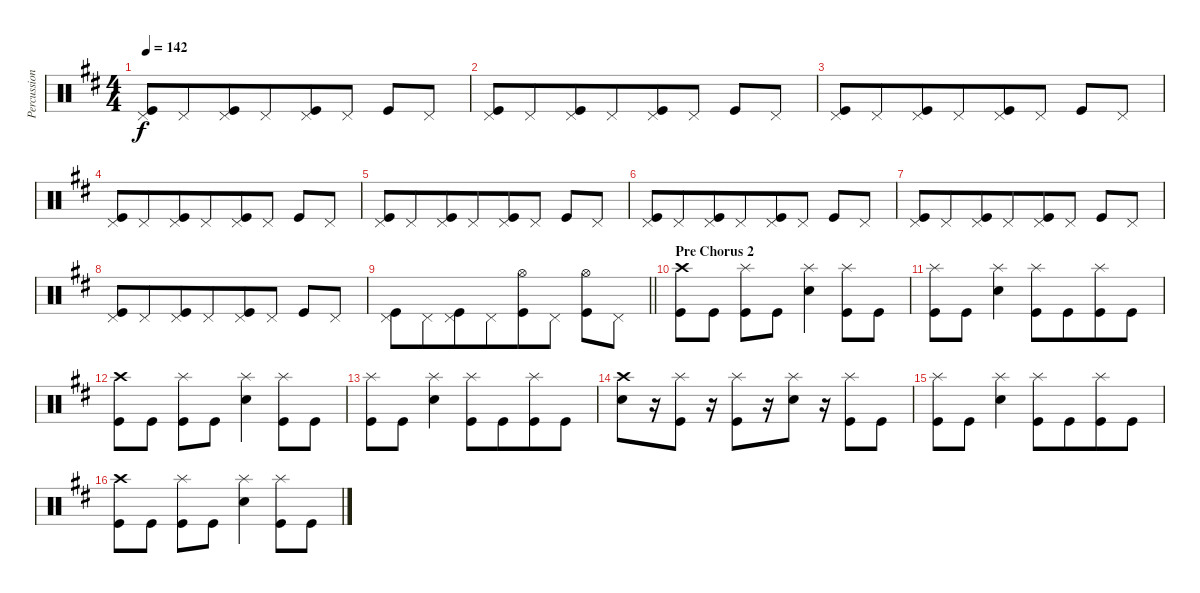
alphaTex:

\track ("Percussion" "Percussion") {instrument percussion}
\staff {score}
\articulation defaults
\ts (4 4)
\tempo 142
\clef neutral
\ks d
("Kick (hit)" "Pedal Hi-Hat (hit)").8{dy f beam merge} "Pedal Hi-Hat (hit)".8{beam merge} ("Kick (hit)" "Pedal Hi-Hat (hit)").8 "Pedal Hi-Hat (hit)".8{beam merge} ("Kick (hit)" "Pedal Hi-Hat (hit)").8{beam merge} "Pedal Hi-Hat (hit)".8 "Kick (hit)".8{beam merge} "Pedal Hi-Hat (hit)".8 |
("Kick (hit)" "Pedal Hi-Hat (hit)").8{beam merge} "Pedal Hi-Hat (hit)".8{beam merge} ("Kick (hit)" "Pedal Hi-Hat (hit)").8 "Pedal Hi-Hat (hit)".8{beam merge} ("Kick (hit)" "Pedal Hi-Hat (hit)").8{beam merge} "Pedal Hi-Hat (hit)".8 "Kick (hit)".8{beam merge} "Pedal Hi-Hat (hit)".8 |
("Kick (hit)" "Pedal Hi-Hat (hit)").8{beam merge} "Pedal Hi-Hat (hit)".8{beam merge} ("Kick (hit)" "Pedal Hi-Hat (hit)").8 "Pedal Hi-Hat (hit)".8{beam merge} ("Kick (hit)" "Pedal Hi-Hat (hit)").8{beam merge} "Pedal Hi-Hat (hit)".8 "Kick (hit)".8{beam merge} "Pedal Hi-Hat (hit)".8 |
("Kick (hit)" "Pedal Hi-Hat (hit)").8{beam merge} "Pedal Hi-Hat (hit)".8{beam merge} ("Kick (hit)" "Pedal Hi-Hat (hit)").8 "Pedal Hi-Hat (hit)".8{beam merge} ("Kick (hit)" "Pedal Hi-Hat (hit)").8{beam merge} "Pedal Hi-Hat (hit)".8 "Kick (hit)".8{beam merge} "Pedal Hi-Hat (hit)".8 |
("Kick (hit)" "Pedal Hi-Hat (hit)").8{beam merge} "Pedal Hi-Hat (hit)".8{beam merge} ("Kick (hit)" "Pedal Hi-Hat (hit)").8 "Pedal Hi-Hat (hit)".8{beam merge} ("Kick (hit)" "Pedal Hi-Hat (hit)").8{beam merge} "Pedal Hi-Hat (hit)".8 "Kick (hit)".8{beam merge} "Pedal Hi-Hat (hit)".8 |
("Kick (hit)" "Pedal Hi-Hat (hit)").8{beam merge} "Pedal Hi-Hat (hit)".8{beam merge} ("Kick (hit)" "Pedal Hi-Hat (hit)").8 "Pedal Hi-Hat (hit)".8{beam merge} ("Kick (hit)" "Pedal Hi-Hat (hit)").8{beam merge} "Pedal Hi-Hat (hit)".8 "Kick (hit)".8{beam merge} "Pedal Hi-Hat (hit)".8 |
("Kick (hit)" "Pedal Hi-Hat (hit)").8{beam merge} "Pedal Hi-Hat (hit)".8{beam merge} ("Kick (hit)" "Pedal Hi-Hat (hit)").8 "Pedal Hi-Hat (hit)".8{beam merge} ("Kick (hit)" "Pedal Hi-Hat (hit)").8{beam merge} "Pedal Hi-Hat (hit)".8 "Kick (hit)".8{beam merge} "Pedal Hi-Hat (hit)".8 |
("Kick (hit)" "Pedal Hi-Hat (hit)").8{beam merge} "Pedal Hi-Hat (hit)".8{beam merge} ("Kick (hit)" "Pedal Hi-Hat (hit)").8 "Pedal Hi-Hat (hit)".8{beam merge} ("Kick (hit)" "Pedal Hi-Hat (hit)").8{beam merge} "Pedal Hi-Hat (hit)".8 "Kick (hit)".8{beam merge} "Pedal Hi-Hat (hit)".8 |
\barLineRight lightlight
("Kick (hit)" "Pedal Hi-Hat (hit)").8{beam merge} "Pedal Hi-Hat (hit)".8{beam merge} ("Kick (hit)" "Pedal Hi-Hat (hit)").8 "Pedal Hi-Hat (hit)".8{beam merge} ("Kick (hit)" "Hi-Hat (open)").8{beam merge} "Pedal Hi-Hat (hit)".8 ("Kick (hit)" "Hi-Hat (open)").8{beam merge} "Pedal Hi-Hat (hit)".8 |
\section ("" "Pre Chorus 2")
("Kick (hit)" "Crash high (hit)").8 "Kick (hit)".8 ("Kick (hit)" "Splash (hit)").8 "Kick (hit)".8{beam merge} ("Snare (hit) 2" "Splash (hit)").4 ("Kick (hit)" "Splash (hit)").8 "Kick (hit)".8 |
("Kick (hit)" "Splash (hit)").8 "Kick (hit)".8 ("Snare (hit) 2" "Splash (hit)").4 ("Kick (hit)" "Splash (hit)").8 "Kick (hit)".8{beam merge} ("Kick (hit)" "Splash (hit)").8 "Kick (hit)".8 |
("Kick (hit)" "Crash high (hit)").8 "Kick (hit)".8 ("Kick (hit)" "Splash (hit)").8 "Kick (hit)".8{beam merge} ("Snare (hit) 2" "Splash (hit)").4 ("Kick (hit)" "Splash (hit)").8 "Kick (hit)".8 |
("Kick (hit)" "Splash (hit)").8 "Kick (hit)".8 ("Snare (hit) 2" "Splash (hit)").4 ("Kick (hit)" "Splash (hit)").8 "Kick (hit)".8{beam merge} ("Kick (hit)" "Splash (hit)").8 "Kick (hit)".8 |
("Snare (hit) 2" "Crash high (hit)").8{beam merge} r.16 ("Kick (hit)" "Splash (hit)").8 r.16{beam merge} ("Kick (hit)" "Splash (hit)").8{beam merge} r.16 ("Snare (hit) 2" "Splash (hit)").8 r.16 ("Kick (hit)" "Splash (hit)").8 "Kick (hit)".8 |
("Kick (hit)" "Splash (hit)").8 "Kick (hit)".8 ("Snare (hit) 2" "Splash (hit)").4 ("Kick (hit)" "Splash (hit)").8 "Kick (hit)".8{beam merge} ("Kick (hit)" "Splash (hit)").8 "Kick (hit)".8 |
("Kick (hit)" "Crash high (hit)").8 "Kick (hit)".8 ("Kick (hit)" "Splash (hit)").8 "Kick (hit)".8{beam merge} ("Snare (hit) 2" "Splash (hit)").4 ("Kick (hit)" "Splash (hit)").8 "Kick (hit)".8
